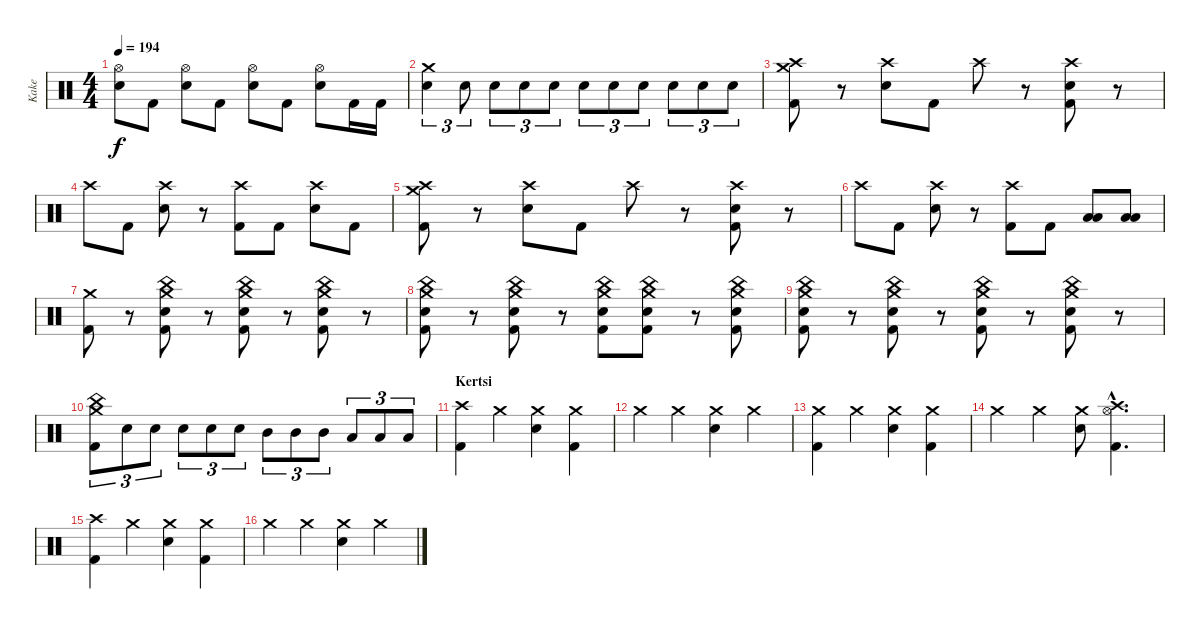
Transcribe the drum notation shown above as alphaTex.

\track ("Kake" "Kake") {instrument percussion}
\staff {score}
\articulation defaults
\ts (4 4)
\tempo 194
\clef neutral
\ks c
("Hi-Hat (open)" "Electric Snare (hit)").8{dy f} "Kick (hit) 2".8 ("Hi-Hat (open)" "Electric Snare (hit)").8 "Kick (hit) 2".8 ("Hi-Hat (open)" "Electric Snare (hit)").8 "Kick (hit) 2".8 ("Hi-Hat (open)" "Electric Snare (hit)").8 "Kick (hit) 2".16 "Kick (hit) 2".16 |
("Crash medium (hit)" "Electric Snare (hit)").4{tu (3 2)} "Electric Snare (hit)".8{tu (3 2)} "Electric Snare (hit)".8{tu (3 2)} "Electric Snare (hit)".8{tu (3 2)} "Electric Snare (hit)".8{tu (3 2)} "Electric Snare (hit)".8{tu (3 2)} "Electric Snare (hit)".8{tu (3 2)} "Electric Snare (hit)".8{tu (3 2)} "Electric Snare (hit)".8{tu (3 2)} "Electric Snare (hit)".8{tu (3 2)} "Electric Snare (hit)".8{tu (3 2)} |
("Crash high (hit)" "Crash medium (hit)" "Kick (hit) 2").8 r.8 ("Crash high (hit)" "Electric Snare (hit)").8 "Kick (hit) 2".8 "Crash high (hit)".8 r.8 ("Crash high (hit)" "Electric Snare (hit)" "Kick (hit) 2").8 r.8 |
"Crash high (hit)".8 "Kick (hit) 2".8 ("Crash high (hit)" "Electric Snare (hit)").8 r.8 ("Crash high (hit)" "Kick (hit) 2").8 "Kick (hit) 2".8 ("Crash high (hit)" "Electric Snare (hit)").8 "Kick (hit) 2".8 |
("Crash high (hit)" "Crash medium (hit)" "Kick (hit) 2").8 r.8 ("Crash high (hit)" "Electric Snare (hit)").8 "Kick (hit) 2".8 "Crash high (hit)".8 r.8 ("Crash high (hit)" "Electric Snare (hit)" "Kick (hit) 2").8 r.8 |
"Crash high (hit)".8 "Kick (hit) 2".8 ("Crash high (hit)" "Electric Snare (hit)").8 r.8 ("Crash high (hit)" "Kick (hit) 2").8 "Kick (hit) 2".8 ("Low Tom (hit)" "Low Floor Tom (hit)").8 ("Low Tom (hit)" "Low Floor Tom (hit)").8 |
("Crash medium (hit)" "Kick (hit) 2").8 r.8 ("China (hit)" "Electric Snare (hit)" "Kick (hit) 2" "Crash medium (hit)").8 r.8 ("China (hit)" "Electric Snare (hit)" "Kick (hit) 2" "Crash medium (hit)").8 r.8 ("China (hit)" "Electric Snare (hit)" "Kick (hit) 2" "Crash medium (hit)").8 r.8 |
("China (hit)" "Electric Snare (hit)" "Kick (hit) 2" "Crash medium (hit)").8 r.8 ("China (hit)" "Electric Snare (hit)" "Kick (hit) 2" "Crash medium (hit)").8 r.8 ("China (hit)" "Electric Snare (hit)" "Kick (hit) 2" "Crash medium (hit)").8 ("China (hit)" "Electric Snare (hit)" "Kick (hit) 2" "Crash medium (hit)").8 r.8 ("China (hit)" "Electric Snare (hit)" "Kick (hit) 2" "Crash medium (hit)").8 |
("China (hit)" "Electric Snare (hit)" "Kick (hit) 2" "Crash medium (hit)").8 r.8 ("China (hit)" "Electric Snare (hit)" "Kick (hit) 2" "Crash medium (hit)").8 r.8 ("China (hit)" "Electric Snare (hit)" "Kick (hit) 2" "Crash medium (hit)").8 r.8 ("China (hit)" "Electric Snare (hit)" "Kick (hit) 2" "Crash medium (hit)").8 r.8 |
("China (hit)" "Kick (hit) 2" "Crash medium (hit)").8{tu (3 2)} "Electric Snare (hit)".8{tu (3 2)} "Electric Snare (hit)".8{tu (3 2)} "Electric Snare (hit)".8{tu (3 2)} "Electric Snare (hit)".8{tu (3 2)} "Electric Snare (hit)".8{tu (3 2)} "Mid Tom (hit)".8{tu (3 2)} "Mid Tom (hit)".8{tu (3 2)} "Mid Tom (hit)".8{tu (3 2)} "Low Tom (hit)".8{tu (3 2)} "Low Tom (hit)".8{tu (3 2)} "Low Tom (hit)".8{tu (3 2)} |
\section ("" "Kertsi")
("Crash high (hit)" "Kick (hit) 2").4 "Crash medium (hit)".4 ("Crash medium (hit)" "Electric Snare (hit)").4 ("Crash medium (hit)" "Kick (hit) 2").4 |
"Crash medium (hit)".4 "Crash medium (hit)".4 ("Crash medium (hit)" "Electric Snare (hit)").4 "Crash medium (hit)".4 |
("Crash medium (hit)" "Kick (hit) 2").4 "Crash medium (hit)".4 ("Crash medium (hit)" "Electric Snare (hit)").4 ("Crash medium (hit)" "Kick (hit) 2").4 |
"Crash medium (hit)".4 "Crash medium (hit)".4 ("Crash medium (hit)" "Electric Snare (hit)").8 ("Crash high (hit)"{hac} "Hi-Hat (open)"{hac} "Kick (hit) 2"{hac}).4{d} |
("Crash high (hit)" "Kick (hit) 2").4 "Crash medium (hit)".4 ("Crash medium (hit)" "Electric Snare (hit)").4 ("Crash medium (hit)" "Kick (hit) 2").4 |
"Crash medium (hit)".4 "Crash medium (hit)".4 ("Crash medium (hit)" "Electric Snare (hit)").4 "Crash medium (hit)".4
